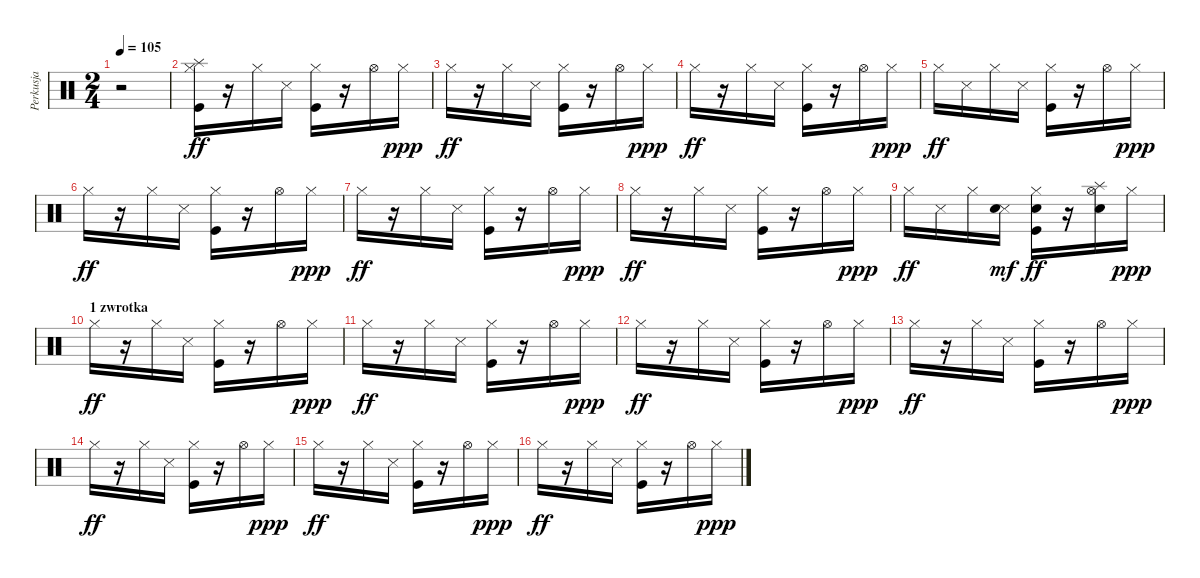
\track ("Perkusja" "Perkusja") {instrument percussion}
\staff {score}
\articulation defaults
\ts (2 4)
\tempo 105
\clef neutral
\ks c
r.2{dy ff} |
("Kick (hit)" "Hi-Hat (closed)" "Splash (hit)").16 r.16 "Hi-Hat (closed)".16 "Snare (side stick) 3".16 ("Kick (hit)" "Hi-Hat (closed)").16 r.16 "Hi-Hat (open)".16 "Hi-Hat (closed)".16{dy ppp} |
"Hi-Hat (closed)".16{dy ff} r.16 "Hi-Hat (closed)".16 "Snare (side stick) 3".16 ("Kick (hit)" "Hi-Hat (closed)").16 r.16 "Hi-Hat (open)".16 "Hi-Hat (closed)".16{dy ppp} |
"Hi-Hat (closed)".16{dy ff} r.16 "Hi-Hat (closed)".16 "Snare (side stick) 3".16 ("Kick (hit)" "Hi-Hat (closed)").16 r.16 "Hi-Hat (open)".16 "Hi-Hat (closed)".16{dy ppp} |
"Hi-Hat (closed)".16{dy ff} "Snare (side stick) 3".16 "Hi-Hat (closed)".16 "Snare (side stick) 3".16 ("Kick (hit)" "Hi-Hat (closed)").16 r.16 "Hi-Hat (open)".16 "Hi-Hat (closed)".16{dy ppp} |
"Hi-Hat (closed)".16{dy ff} r.16 "Hi-Hat (closed)".16 "Snare (side stick) 3".16 ("Kick (hit)" "Hi-Hat (closed)").16 r.16 "Hi-Hat (open)".16 "Hi-Hat (closed)".16{dy ppp} |
"Hi-Hat (closed)".16{dy ff} r.16 "Hi-Hat (closed)".16 "Snare (side stick) 3".16 ("Kick (hit)" "Hi-Hat (closed)").16 r.16 "Hi-Hat (open)".16 "Hi-Hat (closed)".16{dy ppp} |
"Hi-Hat (closed)".16{dy ff} r.16 "Hi-Hat (closed)".16 "Snare (side stick) 3".16 ("Kick (hit)" "Hi-Hat (closed)").16 r.16 "Hi-Hat (open)".16 "Hi-Hat (closed)".16{dy ppp} |
"Hi-Hat (closed)".16{dy ff} "Snare (side stick) 3".16 "Hi-Hat (closed)".16 ("Snare (side stick) 3" "Electric Snare (hit)").16{dy mf} ("Kick (hit)" "Hi-Hat (closed)" "Snare (hit) 2").16{dy ff} r.16 ("Hi-Hat (open)" "Splash (hit)" "Electric Snare (hit)").16 "Hi-Hat (closed)".16{dy ppp} |
\section ("" "1 zwrotka")
"Hi-Hat (closed)".16{dy ff} r.16 "Hi-Hat (closed)".16 "Snare (side stick) 3".16 ("Kick (hit)" "Hi-Hat (closed)").16 r.16 "Hi-Hat (open)".16 "Hi-Hat (closed)".16{dy ppp} |
"Hi-Hat (closed)".16{dy ff} r.16 "Hi-Hat (closed)".16 "Snare (side stick) 3".16 ("Kick (hit)" "Hi-Hat (closed)").16 r.16 "Hi-Hat (open)".16 "Hi-Hat (closed)".16{dy ppp} |
"Hi-Hat (closed)".16{dy ff} r.16 "Hi-Hat (closed)".16 "Snare (side stick) 3".16 ("Kick (hit)" "Hi-Hat (closed)").16 r.16 "Hi-Hat (open)".16 "Hi-Hat (closed)".16{dy ppp} |
"Hi-Hat (closed)".16{dy ff} r.16 "Hi-Hat (closed)".16 "Snare (side stick) 3".16 ("Kick (hit)" "Hi-Hat (closed)").16 r.16 "Hi-Hat (open)".16 "Hi-Hat (closed)".16{dy ppp} |
"Hi-Hat (closed)".16{dy ff} r.16 "Hi-Hat (closed)".16 "Snare (side stick) 3".16 ("Kick (hit)" "Hi-Hat (closed)").16 r.16 "Hi-Hat (open)".16 "Hi-Hat (closed)".16{dy ppp} |
"Hi-Hat (closed)".16{dy ff} r.16 "Hi-Hat (closed)".16 "Snare (side stick) 3".16 ("Kick (hit)" "Hi-Hat (closed)").16 r.16 "Hi-Hat (open)".16 "Hi-Hat (closed)".16{dy ppp} |
"Hi-Hat (closed)".16{dy ff} r.16 "Hi-Hat (closed)".16 "Snare (side stick) 3".16 ("Kick (hit)" "Hi-Hat (closed)").16 r.16 "Hi-Hat (open)".16 "Hi-Hat (closed)".16{dy ppp}
